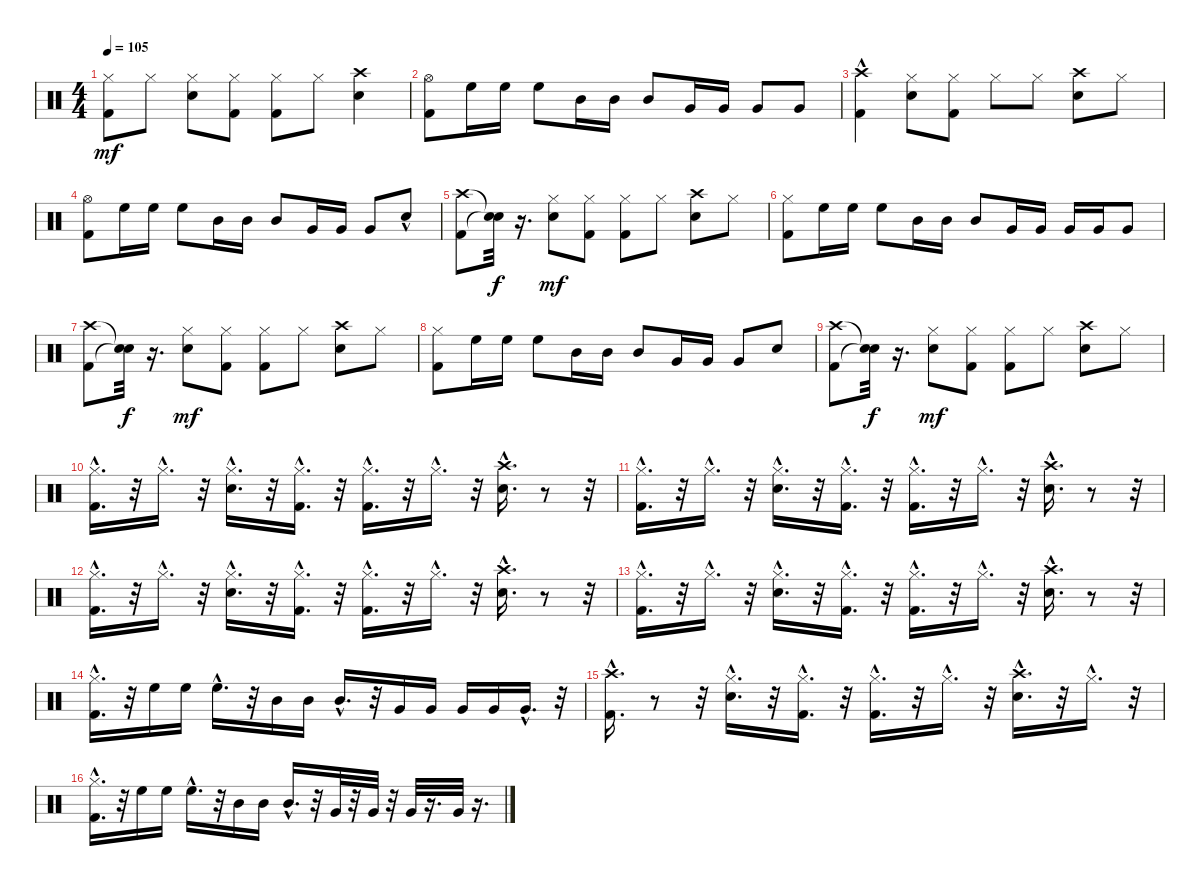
\track "" {instrument percussion}
\staff {score}
\articulation defaults
\ts (4 4)
\tempo 105
\clef neutral
\ks c
("Kick (hit) 2" "Hi-Hat (closed)").8{dy mf} "Hi-Hat (closed)".8 ("Snare (hit) 2" "Hi-Hat (closed)").8 ("Kick (hit) 2" "Hi-Hat (closed)").8 ("Kick (hit) 2" "Hi-Hat (closed)").8 "Hi-Hat (closed)".8 ("Crash high (hit)" "Snare (hit) 2").4 |
("Kick (hit) 2" "Hi-Hat (open)").8 "High Floor Tom (hit)".16 "High Floor Tom (hit)".16 "High Floor Tom (hit)".8 "Mid Tom (hit)".16 "Mid Tom (hit)".16 "Mid Tom (hit)".8 "Very Low Tom (hit)".16 "Very Low Tom (hit)".16 "Very Low Tom (hit)".8 "Very Low Tom (hit)".8 |
("Kick (hit) 2"{hac} "Crash high (hit)").4 ("Snare (hit) 2" "Hi-Hat (closed)").8 ("Kick (hit) 2" "Hi-Hat (closed)").8 "Hi-Hat (closed)".8 "Hi-Hat (closed)".8 ("Crash high (hit)" "Snare (hit) 2").8 "Hi-Hat (closed)".8 |
("Hi-Hat (open)" "Kick (hit) 2").8 "High Floor Tom (hit)".16 "High Floor Tom (hit)".16 "High Floor Tom (hit)".8 "Mid Tom (hit)".16 "Mid Tom (hit)".16 "Mid Tom (hit)".8 "Very Low Tom (hit)".16 "Very Low Tom (hit)".16 "Very Low Tom (hit)".8 "Snare (hit) 2"{hac}.8 |
("Kick (hit) 2" "Crash high (hit)").8 ("Snare (hit)"{t} "Snare (hit)"{t}).32{dy f} r.16{d} ("Snare (hit) 2" "Hi-Hat (closed)").8{dy mf} ("Kick (hit) 2" "Hi-Hat (closed)").8 ("Kick (hit) 2" "Hi-Hat (closed)").8 "Hi-Hat (closed)".8 ("Snare (hit) 2" "Crash high (hit)").8 "Hi-Hat (closed)".8 |
("Kick (hit) 2" "Hi-Hat (closed)").8 "High Floor Tom (hit)".16 "High Floor Tom (hit)".16 "High Floor Tom (hit)".8 "Mid Tom (hit)".16 "Mid Tom (hit)".16 "Mid Tom (hit)".8 "Very Low Tom (hit)".16 "Very Low Tom (hit)".16 "Very Low Tom (hit)".16 "Very Low Tom (hit)".16 "Very Low Tom (hit)".8 |
("Kick (hit) 2" "Crash high (hit)").8 ("Snare (hit)"{t} "Snare (hit)"{t}).32{dy f} r.16{d} ("Snare (hit) 2" "Hi-Hat (closed)").8{dy mf} ("Kick (hit) 2" "Hi-Hat (closed)").8 ("Kick (hit) 2" "Hi-Hat (closed)").8 "Hi-Hat (closed)".8 ("Snare (hit) 2" "Crash high (hit)").8 "Hi-Hat (closed)".8 |
("Kick (hit) 2" "Hi-Hat (closed)").8 "High Floor Tom (hit)".16 "High Floor Tom (hit)".16 "High Floor Tom (hit)".8 "Mid Tom (hit)".16 "Mid Tom (hit)".16 "Mid Tom (hit)".8 "Very Low Tom (hit)".16 "Very Low Tom (hit)".16 "Very Low Tom (hit)".8 "Snare (hit) 2".8 |
("Kick (hit) 2" "Crash high (hit)").8 ("Snare (hit)"{t} "Snare (hit)"{t}).32{dy f} r.16{d} ("Snare (hit) 2" "Hi-Hat (closed)").8{dy mf} ("Kick (hit) 2" "Hi-Hat (closed)").8 ("Kick (hit) 2" "Hi-Hat (closed)").8 "Hi-Hat (closed)".8 ("Snare (hit) 2" "Crash high (hit)").8 "Hi-Hat (closed)".8 |
("Kick (hit) 2"{hac} "Hi-Hat (closed)"{hac}).16{d} r.32 "Hi-Hat (closed)"{hac}.16{d} r.32 ("Snare (hit) 2"{hac} "Hi-Hat (closed)"{hac}).16{d} r.32 ("Kick (hit) 2"{hac} "Hi-Hat (closed)"{hac}).16{d} r.32 ("Kick (hit) 2"{hac} "Hi-Hat (closed)"{hac}).16{d} r.32 "Hi-Hat (closed)"{hac}.16{d} r.32 ("Snare (hit) 2"{hac} "Crash high (hit)"{hac}).16{d} r.8 r.32 |
("Kick (hit) 2"{hac} "Hi-Hat (closed)"{hac}).16{d} r.32 "Hi-Hat (closed)"{hac}.16{d} r.32 ("Snare (hit) 2"{hac} "Hi-Hat (closed)"{hac}).16{d} r.32 ("Kick (hit) 2"{hac} "Hi-Hat (closed)"{hac}).16{d} r.32 ("Kick (hit) 2"{hac} "Hi-Hat (closed)"{hac}).16{d} r.32 "Hi-Hat (closed)"{hac}.16{d} r.32 ("Snare (hit) 2"{hac} "Crash high (hit)"{hac}).16{d} r.8 r.32 |
("Kick (hit) 2"{hac} "Hi-Hat (closed)"{hac}).16{d} r.32 "Hi-Hat (closed)"{hac}.16{d} r.32 ("Snare (hit) 2"{hac} "Hi-Hat (closed)"{hac}).16{d} r.32 ("Kick (hit) 2"{hac} "Hi-Hat (closed)"{hac}).16{d} r.32 ("Kick (hit) 2"{hac} "Hi-Hat (closed)"{hac}).16{d} r.32 "Hi-Hat (closed)"{hac}.16{d} r.32 ("Snare (hit) 2"{hac} "Crash high (hit)"{hac}).16{d} r.8 r.32 |
("Kick (hit) 2"{hac} "Hi-Hat (closed)"{hac}).16{d} r.32 "Hi-Hat (closed)"{hac}.16{d} r.32 ("Snare (hit) 2"{hac} "Hi-Hat (closed)"{hac}).16{d} r.32 ("Kick (hit) 2"{hac} "Hi-Hat (closed)"{hac}).16{d} r.32 ("Kick (hit) 2"{hac} "Hi-Hat (closed)"{hac}).16{d} r.32 "Hi-Hat (closed)"{hac}.16{d} r.32 ("Snare (hit) 2"{hac} "Crash high (hit)"{hac}).16{d} r.8 r.32 |
("Kick (hit) 2"{hac} "Hi-Hat (closed)"{hac}).16{d} r.32 "High Floor Tom (hit)".16 "High Floor Tom (hit)".16 "High Floor Tom (hit)"{hac}.16{d} r.32 "Mid Tom (hit)".16 "Mid Tom (hit)".16 "Mid Tom (hit)"{hac}.16{d} r.32 "Very Low Tom (hit)".16 "Very Low Tom (hit)".16 "Very Low Tom (hit)".16 "Very Low Tom (hit)".16 "Very Low Tom (hit)"{hac}.16{d} r.32 |
("Kick (hit) 2"{hac} "Crash high (hit)"{hac}).16{d} r.8 r.32 ("Snare (hit) 2"{hac} "Hi-Hat (closed)"{hac}).16{d} r.32 ("Kick (hit) 2"{hac} "Hi-Hat (closed)"{hac}).16{d} r.32 ("Kick (hit) 2"{hac} "Hi-Hat (closed)"{hac}).16{d} r.32 "Hi-Hat (closed)"{hac}.16{d} r.32 ("Snare (hit) 2"{hac} "Crash high (hit)"{hac}).16{d} r.32 "Hi-Hat (closed)"{hac}.16{d} r.32 |
("Kick (hit) 2"{hac} "Hi-Hat (closed)"{hac}).16{d} r.32 "High Floor Tom (hit)".16 "High Floor Tom (hit)".16 "High Floor Tom (hit)"{hac}.16{d} r.32 "Mid Tom (hit)".16 "Mid Tom (hit)".16 "Mid Tom (hit)"{hac}.16{d} r.32 "Very Low Tom (hit)".32 r.32 "Very Low Tom (hit)".32 r.32 "Very Low Tom (hit)".32 r.16{d} "Very Low Tom (hit)".32 r.16{d}
